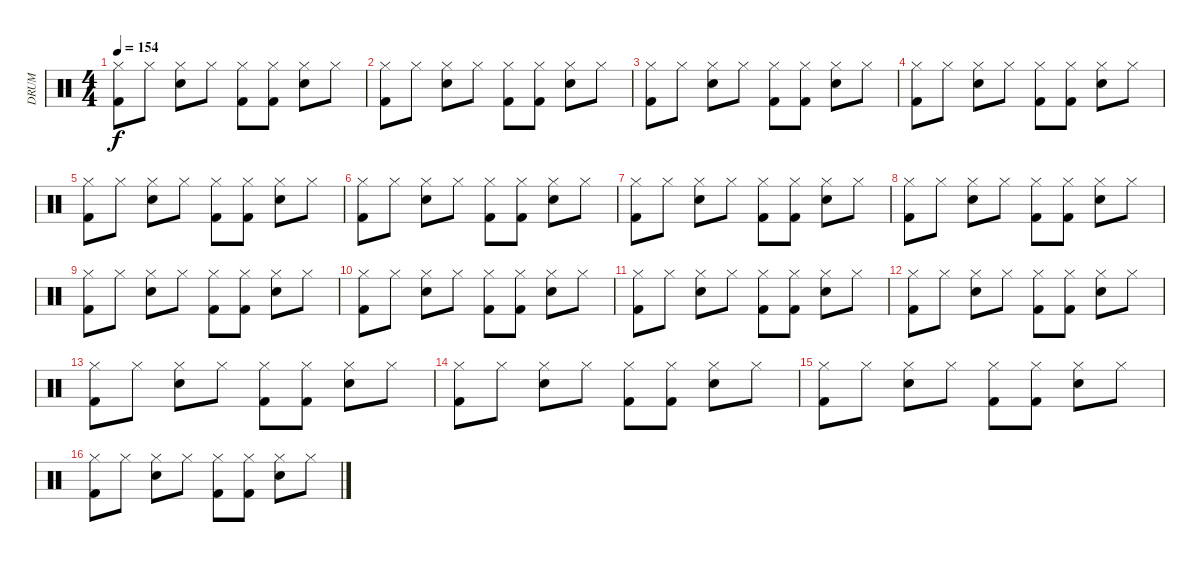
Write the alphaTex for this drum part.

\track ("DRUM" "DRUM") {instrument percussion}
\staff {score}
\articulation defaults
\ts (4 4)
\tempo 154
\clef neutral
\ks c
("Hi-Hat (closed)" "Kick (hit) 2").8{dy f} "Hi-Hat (closed)".8 ("Hi-Hat (closed)" "Snare (hit) 2").8 "Hi-Hat (closed)".8 ("Hi-Hat (closed)" "Kick (hit) 2").8 ("Hi-Hat (closed)" "Kick (hit) 2").8 ("Hi-Hat (closed)" "Snare (hit) 2").8 "Hi-Hat (closed)".8 |
("Hi-Hat (closed)" "Kick (hit) 2").8 "Hi-Hat (closed)".8 ("Hi-Hat (closed)" "Snare (hit) 2").8 "Hi-Hat (closed)".8 ("Hi-Hat (closed)" "Kick (hit) 2").8 ("Hi-Hat (closed)" "Kick (hit) 2").8 ("Hi-Hat (closed)" "Snare (hit) 2").8 "Hi-Hat (closed)".8 |
("Hi-Hat (closed)" "Kick (hit) 2").8 "Hi-Hat (closed)".8 ("Hi-Hat (closed)" "Snare (hit) 2").8 "Hi-Hat (closed)".8 ("Hi-Hat (closed)" "Kick (hit) 2").8 ("Hi-Hat (closed)" "Kick (hit) 2").8 ("Hi-Hat (closed)" "Snare (hit) 2").8 "Hi-Hat (closed)".8 |
("Hi-Hat (closed)" "Kick (hit) 2").8 "Hi-Hat (closed)".8 ("Hi-Hat (closed)" "Snare (hit) 2").8 "Hi-Hat (closed)".8 ("Hi-Hat (closed)" "Kick (hit) 2").8 ("Hi-Hat (closed)" "Kick (hit) 2").8 ("Hi-Hat (closed)" "Snare (hit) 2").8 "Hi-Hat (closed)".8 |
("Hi-Hat (closed)" "Kick (hit) 2").8 "Hi-Hat (closed)".8 ("Hi-Hat (closed)" "Snare (hit) 2").8 "Hi-Hat (closed)".8 ("Hi-Hat (closed)" "Kick (hit) 2").8 ("Hi-Hat (closed)" "Kick (hit) 2").8 ("Hi-Hat (closed)" "Snare (hit) 2").8 "Hi-Hat (closed)".8 |
("Hi-Hat (closed)" "Kick (hit) 2").8 "Hi-Hat (closed)".8 ("Hi-Hat (closed)" "Snare (hit) 2").8 "Hi-Hat (closed)".8 ("Hi-Hat (closed)" "Kick (hit) 2").8 ("Hi-Hat (closed)" "Kick (hit) 2").8 ("Hi-Hat (closed)" "Snare (hit) 2").8 "Hi-Hat (closed)".8 |
("Hi-Hat (closed)" "Kick (hit) 2").8 "Hi-Hat (closed)".8 ("Hi-Hat (closed)" "Snare (hit) 2").8 "Hi-Hat (closed)".8 ("Hi-Hat (closed)" "Kick (hit) 2").8 ("Hi-Hat (closed)" "Kick (hit) 2").8 ("Hi-Hat (closed)" "Snare (hit) 2").8 "Hi-Hat (closed)".8 |
("Hi-Hat (closed)" "Kick (hit) 2").8 "Hi-Hat (closed)".8 ("Hi-Hat (closed)" "Snare (hit) 2").8 "Hi-Hat (closed)".8 ("Hi-Hat (closed)" "Kick (hit) 2").8 ("Hi-Hat (closed)" "Kick (hit) 2").8 ("Hi-Hat (closed)" "Snare (hit) 2").8 "Hi-Hat (closed)".8 |
("Hi-Hat (closed)" "Kick (hit) 2").8 "Hi-Hat (closed)".8 ("Hi-Hat (closed)" "Snare (hit) 2").8 "Hi-Hat (closed)".8 ("Hi-Hat (closed)" "Kick (hit) 2").8 ("Hi-Hat (closed)" "Kick (hit) 2").8 ("Hi-Hat (closed)" "Snare (hit) 2").8 "Hi-Hat (closed)".8 |
("Hi-Hat (closed)" "Kick (hit) 2").8 "Hi-Hat (closed)".8 ("Hi-Hat (closed)" "Snare (hit) 2").8 "Hi-Hat (closed)".8 ("Hi-Hat (closed)" "Kick (hit) 2").8 ("Hi-Hat (closed)" "Kick (hit) 2").8 ("Hi-Hat (closed)" "Snare (hit) 2").8 "Hi-Hat (closed)".8 |
("Hi-Hat (closed)" "Kick (hit) 2").8 "Hi-Hat (closed)".8 ("Hi-Hat (closed)" "Snare (hit) 2").8 "Hi-Hat (closed)".8 ("Hi-Hat (closed)" "Kick (hit) 2").8 ("Hi-Hat (closed)" "Kick (hit) 2").8 ("Hi-Hat (closed)" "Snare (hit) 2").8 "Hi-Hat (closed)".8 |
("Hi-Hat (closed)" "Kick (hit) 2").8 "Hi-Hat (closed)".8 ("Hi-Hat (closed)" "Snare (hit) 2").8 "Hi-Hat (closed)".8 ("Hi-Hat (closed)" "Kick (hit) 2").8 ("Hi-Hat (closed)" "Kick (hit) 2").8 ("Hi-Hat (closed)" "Snare (hit) 2").8 "Hi-Hat (closed)".8 |
("Hi-Hat (closed)" "Kick (hit) 2").8 "Hi-Hat (closed)".8 ("Hi-Hat (closed)" "Snare (hit) 2").8 "Hi-Hat (closed)".8 ("Hi-Hat (closed)" "Kick (hit) 2").8 ("Hi-Hat (closed)" "Kick (hit) 2").8 ("Hi-Hat (closed)" "Snare (hit) 2").8 "Hi-Hat (closed)".8 |
("Hi-Hat (closed)" "Kick (hit) 2").8 "Hi-Hat (closed)".8 ("Hi-Hat (closed)" "Snare (hit) 2").8 "Hi-Hat (closed)".8 ("Hi-Hat (closed)" "Kick (hit) 2").8 ("Hi-Hat (closed)" "Kick (hit) 2").8 ("Hi-Hat (closed)" "Snare (hit) 2").8 "Hi-Hat (closed)".8 |
("Hi-Hat (closed)" "Kick (hit) 2").8 "Hi-Hat (closed)".8 ("Hi-Hat (closed)" "Snare (hit) 2").8 "Hi-Hat (closed)".8 ("Hi-Hat (closed)" "Kick (hit) 2").8 ("Hi-Hat (closed)" "Kick (hit) 2").8 ("Hi-Hat (closed)" "Snare (hit) 2").8 "Hi-Hat (closed)".8 |
("Hi-Hat (closed)" "Kick (hit) 2").8 "Hi-Hat (closed)".8 ("Hi-Hat (closed)" "Snare (hit) 2").8 "Hi-Hat (closed)".8 ("Hi-Hat (closed)" "Kick (hit) 2").8 ("Hi-Hat (closed)" "Kick (hit) 2").8 ("Hi-Hat (closed)" "Snare (hit) 2").8 "Hi-Hat (closed)".8
